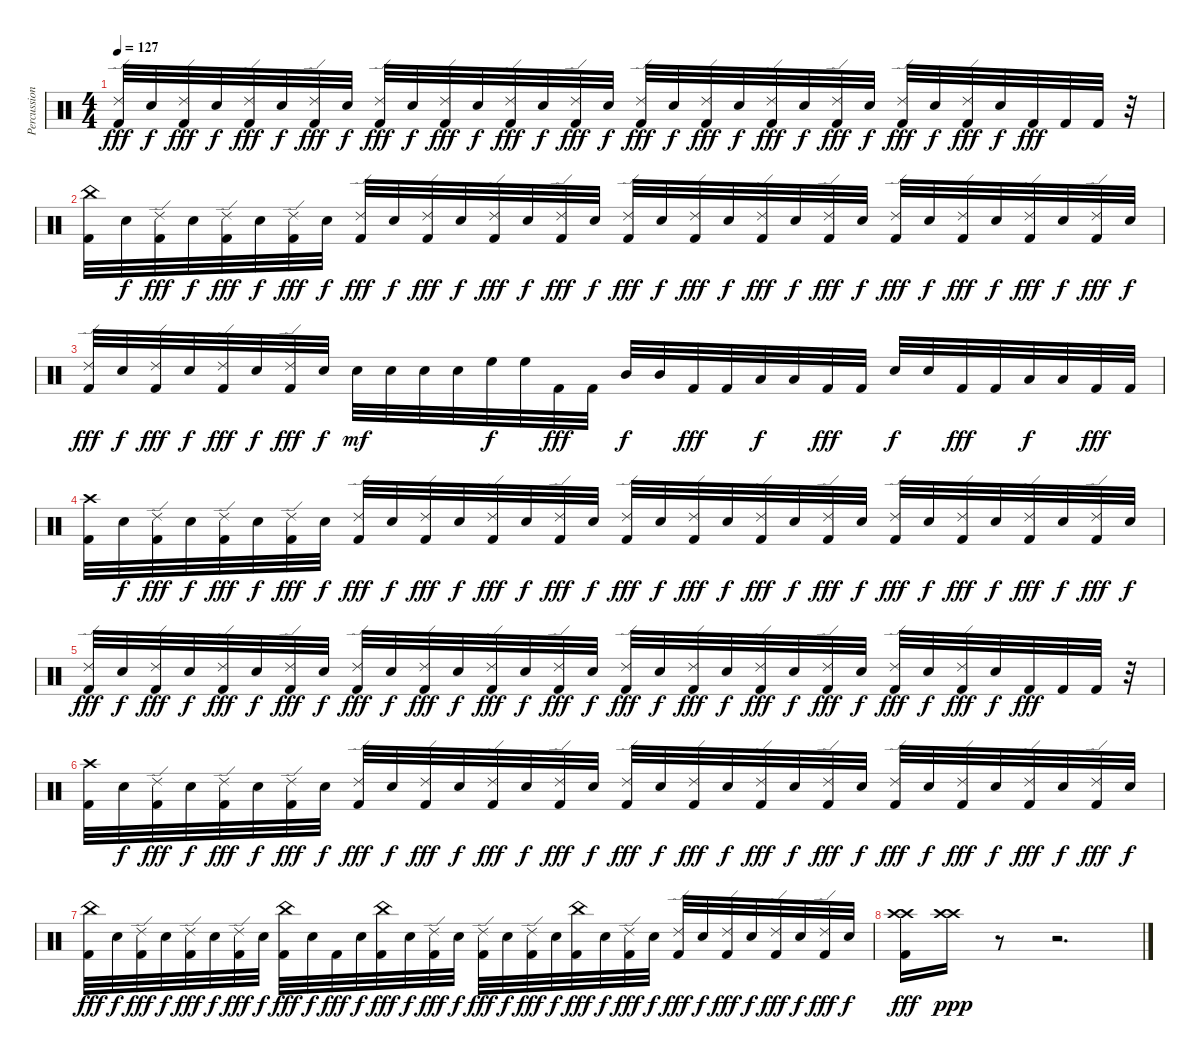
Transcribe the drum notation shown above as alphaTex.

\track ("Percussion" "Percussion") {instrument percussion}
\staff {score}
\articulation defaults
\ts (4 4)
\tempo 127
\clef neutral
\ks c
("Ride (edge) 2" "Kick (hit) 2").32{dy fff} "Electric Snare (hit)".32{dy f} ("Ride (edge) 2" "Kick (hit) 2").32{dy fff} "Electric Snare (hit)".32{dy f} ("Ride (edge) 2" "Kick (hit) 2").32{dy fff} "Electric Snare (hit)".32{dy f} ("Ride (edge) 2" "Kick (hit) 2").32{dy fff} "Electric Snare (hit)".32{dy f} ("Ride (edge) 2" "Kick (hit) 2").32{dy fff} "Electric Snare (hit)".32{dy f} ("Ride (edge) 2" "Kick (hit) 2").32{dy fff} "Electric Snare (hit)".32{dy f} ("Ride (edge) 2" "Kick (hit) 2").32{dy fff} "Electric Snare (hit)".32{dy f} ("Ride (edge) 2" "Kick (hit) 2").32{dy fff} "Electric Snare (hit)".32{dy f} ("Ride (edge) 2" "Kick (hit) 2").32{dy fff} "Electric Snare (hit)".32{dy f} ("Ride (edge) 2" "Kick (hit) 2").32{dy fff} "Electric Snare (hit)".32{dy f} ("Ride (edge) 2" "Kick (hit) 2").32{dy fff} "Electric Snare (hit)".32{dy f} ("Ride (edge) 2" "Kick (hit) 2").32{dy fff} "Electric Snare (hit)".32{dy f} ("Ride (edge) 2" "Kick (hit) 2").32{dy fff} "Electric Snare (hit)".32{dy f} ("Ride (edge) 2" "Kick (hit) 2").32{dy fff} "Electric Snare (hit)".32{dy f} "Kick (hit) 2".32{dy fff} "Kick (hit) 2".32 "Kick (hit) 2".32 r.32 |
("China (hit)" "Kick (hit) 2").32 "Electric Snare (hit)".32{dy f} ("Ride (edge) 2" "Kick (hit) 2").32{dy fff} "Electric Snare (hit)".32{dy f} ("Ride (edge) 2" "Kick (hit) 2").32{dy fff} "Electric Snare (hit)".32{dy f} ("Ride (edge) 2" "Kick (hit) 2").32{dy fff} "Electric Snare (hit)".32{dy f} ("Ride (edge) 2" "Kick (hit) 2").32{dy fff} "Electric Snare (hit)".32{dy f} ("Ride (edge) 2" "Kick (hit) 2").32{dy fff} "Electric Snare (hit)".32{dy f} ("Ride (edge) 2" "Kick (hit) 2").32{dy fff} "Electric Snare (hit)".32{dy f} ("Ride (edge) 2" "Kick (hit) 2").32{dy fff} "Electric Snare (hit)".32{dy f} ("Ride (edge) 2" "Kick (hit) 2").32{dy fff} "Electric Snare (hit)".32{dy f} ("Ride (edge) 2" "Kick (hit) 2").32{dy fff} "Electric Snare (hit)".32{dy f} ("Ride (edge) 2" "Kick (hit) 2").32{dy fff} "Electric Snare (hit)".32{dy f} ("Ride (edge) 2" "Kick (hit) 2").32{dy fff} "Electric Snare (hit)".32{dy f} ("Ride (edge) 2" "Kick (hit) 2").32{dy fff} "Electric Snare (hit)".32{dy f} ("Ride (edge) 2" "Kick (hit) 2").32{dy fff} "Electric Snare (hit)".32{dy f} ("Ride (edge) 2" "Kick (hit) 2").32{dy fff} "Electric Snare (hit)".32{dy f} ("Ride (edge) 2" "Kick (hit) 2").32{dy fff} "Electric Snare (hit)".32{dy f} |
("Ride (edge) 2" "Kick (hit) 2").32{dy fff} "Electric Snare (hit)".32{dy f} ("Ride (edge) 2" "Kick (hit) 2").32{dy fff} "Electric Snare (hit)".32{dy f} ("Ride (edge) 2" "Kick (hit) 2").32{dy fff} "Electric Snare (hit)".32{dy f} ("Ride (edge) 2" "Kick (hit) 2").32{dy fff} "Electric Snare (hit)".32{dy f} "Electric Snare (hit)".32{dy mf} "Electric Snare (hit)".32 "Electric Snare (hit)".32 "Electric Snare (hit)".32 "High Floor Tom (hit)".32{dy f} "High Floor Tom (hit)".32 "Kick (hit) 2".32{dy fff} "Kick (hit) 2".32 "Mid Tom (hit)".32{dy f} "Mid Tom (hit)".32 "Kick (hit) 2".32{dy fff} "Kick (hit) 2".32 "Low Tom (hit)".32{dy f} "Low Tom (hit)".32 "Kick (hit) 2".32{dy fff} "Kick (hit) 2".32 "Electric Snare (hit)".32{dy f} "Electric Snare (hit)".32 "Kick (hit) 2".32{dy fff} "Kick (hit) 2".32 "Low Tom (hit)".32{dy f} "Low Tom (hit)".32 "Kick (hit) 2".32{dy fff} "Kick (hit) 2".32 |
("Crash high (hit)" "Kick (hit) 2").32 "Electric Snare (hit)".32{dy f} ("Ride (edge) 2" "Kick (hit) 2").32{dy fff} "Electric Snare (hit)".32{dy f} ("Ride (edge) 2" "Kick (hit) 2").32{dy fff} "Electric Snare (hit)".32{dy f} ("Ride (edge) 2" "Kick (hit) 2").32{dy fff} "Electric Snare (hit)".32{dy f} ("Ride (edge) 2" "Kick (hit) 2").32{dy fff} "Electric Snare (hit)".32{dy f} ("Ride (edge) 2" "Kick (hit) 2").32{dy fff} "Electric Snare (hit)".32{dy f} ("Ride (edge) 2" "Kick (hit) 2").32{dy fff} "Electric Snare (hit)".32{dy f} ("Ride (edge) 2" "Kick (hit) 2").32{dy fff} "Electric Snare (hit)".32{dy f} ("Ride (edge) 2" "Kick (hit) 2").32{dy fff} "Electric Snare (hit)".32{dy f} ("Ride (edge) 2" "Kick (hit) 2").32{dy fff} "Electric Snare (hit)".32{dy f} ("Ride (edge) 2" "Kick (hit) 2").32{dy fff} "Electric Snare (hit)".32{dy f} ("Ride (edge) 2" "Kick (hit) 2").32{dy fff} "Electric Snare (hit)".32{dy f} ("Ride (edge) 2" "Kick (hit) 2").32{dy fff} "Electric Snare (hit)".32{dy f} ("Ride (edge) 2" "Kick (hit) 2").32{dy fff} "Electric Snare (hit)".32{dy f} ("Ride (edge) 2" "Kick (hit) 2").32{dy fff} "Electric Snare (hit)".32{dy f} ("Ride (edge) 2" "Kick (hit) 2").32{dy fff} "Electric Snare (hit)".32{dy f} |
("Ride (edge) 2" "Kick (hit) 2").32{dy fff} "Electric Snare (hit)".32{dy f} ("Ride (edge) 2" "Kick (hit) 2").32{dy fff} "Electric Snare (hit)".32{dy f} ("Ride (edge) 2" "Kick (hit) 2").32{dy fff} "Electric Snare (hit)".32{dy f} ("Ride (edge) 2" "Kick (hit) 2").32{dy fff} "Electric Snare (hit)".32{dy f} ("Ride (edge) 2" "Kick (hit) 2").32{dy fff} "Electric Snare (hit)".32{dy f} ("Ride (edge) 2" "Kick (hit) 2").32{dy fff} "Electric Snare (hit)".32{dy f} ("Ride (edge) 2" "Kick (hit) 2").32{dy fff} "Electric Snare (hit)".32{dy f} ("Ride (edge) 2" "Kick (hit) 2").32{dy fff} "Electric Snare (hit)".32{dy f} ("Ride (edge) 2" "Kick (hit) 2").32{dy fff} "Electric Snare (hit)".32{dy f} ("Ride (edge) 2" "Kick (hit) 2").32{dy fff} "Electric Snare (hit)".32{dy f} ("Ride (edge) 2" "Kick (hit) 2").32{dy fff} "Electric Snare (hit)".32{dy f} ("Ride (edge) 2" "Kick (hit) 2").32{dy fff} "Electric Snare (hit)".32{dy f} ("Ride (edge) 2" "Kick (hit) 2").32{dy fff} "Electric Snare (hit)".32{dy f} ("Ride (edge) 2" "Kick (hit) 2").32{dy fff} "Electric Snare (hit)".32{dy f} "Kick (hit) 2".32{dy fff} "Kick (hit) 2".32 "Kick (hit) 2".32 r.32 |
("Crash high (hit)" "Kick (hit) 2").32 "Electric Snare (hit)".32{dy f} ("Ride (edge) 2" "Kick (hit) 2").32{dy fff} "Electric Snare (hit)".32{dy f} ("Ride (edge) 2" "Kick (hit) 2").32{dy fff} "Electric Snare (hit)".32{dy f} ("Ride (edge) 2" "Kick (hit) 2").32{dy fff} "Electric Snare (hit)".32{dy f} ("Ride (edge) 2" "Kick (hit) 2").32{dy fff} "Electric Snare (hit)".32{dy f} ("Ride (edge) 2" "Kick (hit) 2").32{dy fff} "Electric Snare (hit)".32{dy f} ("Ride (edge) 2" "Kick (hit) 2").32{dy fff} "Electric Snare (hit)".32{dy f} ("Ride (edge) 2" "Kick (hit) 2").32{dy fff} "Electric Snare (hit)".32{dy f} ("Ride (edge) 2" "Kick (hit) 2").32{dy fff} "Electric Snare (hit)".32{dy f} ("Ride (edge) 2" "Kick (hit) 2").32{dy fff} "Electric Snare (hit)".32{dy f} ("Ride (edge) 2" "Kick (hit) 2").32{dy fff} "Electric Snare (hit)".32{dy f} ("Ride (edge) 2" "Kick (hit) 2").32{dy fff} "Electric Snare (hit)".32{dy f} ("Ride (edge) 2" "Kick (hit) 2").32{dy fff} "Electric Snare (hit)".32{dy f} ("Ride (edge) 2" "Kick (hit) 2").32{dy fff} "Electric Snare (hit)".32{dy f} ("Ride (edge) 2" "Kick (hit) 2").32{dy fff} "Electric Snare (hit)".32{dy f} ("Ride (edge) 2" "Kick (hit) 2").32{dy fff} "Electric Snare (hit)".32{dy f} |
("China (hit)" "Kick (hit) 2").32{dy fff} "Electric Snare (hit)".32{dy f} ("Ride (edge) 2" "Kick (hit) 2").32{dy fff} "Electric Snare (hit)".32{dy f} ("Ride (edge) 2" "Kick (hit) 2").32{dy fff} "Electric Snare (hit)".32{dy f} ("Ride (edge) 2" "Kick (hit) 2").32{dy fff} "Electric Snare (hit)".32{dy f} ("China (hit)" "Kick (hit) 2").32{dy fff} "Electric Snare (hit)".32{dy f} "Kick (hit) 2".32{dy fff} "Electric Snare (hit)".32{dy f} ("China (hit)" "Kick (hit) 2").32{dy fff} "Electric Snare (hit)".32{dy f} ("Ride (edge) 2" "Kick (hit) 2").32{dy fff} "Electric Snare (hit)".32{dy f} ("Ride (edge) 2" "Kick (hit) 2").32{dy fff} "Electric Snare (hit)".32{dy f} ("Ride (edge) 2" "Kick (hit) 2").32{dy fff} "Electric Snare (hit)".32{dy f} ("China (hit)" "Kick (hit) 2").32{dy fff} "Electric Snare (hit)".32{dy f} ("Ride (edge) 2" "Kick (hit) 2").32{dy fff} "Electric Snare (hit)".32{dy f} ("Ride (edge) 2" "Kick (hit) 2").32{dy fff} "Electric Snare (hit)".32{dy f} ("Ride (edge) 2" "Kick (hit) 2").32{dy fff} "Electric Snare (hit)".32{dy f} ("Ride (edge) 2" "Kick (hit) 2").32{dy fff} "Electric Snare (hit)".32{dy f} ("Ride (edge) 2" "Kick (hit) 2").32{dy fff} "Electric Snare (hit)".32{dy f} |
("Crash high (hit)" "Crash high (hit)" "Kick (hit) 2").16{dy fff} ("Crash high (hit)" "Crash high (hit)").16{dy ppp} r.8 r.2{d}
